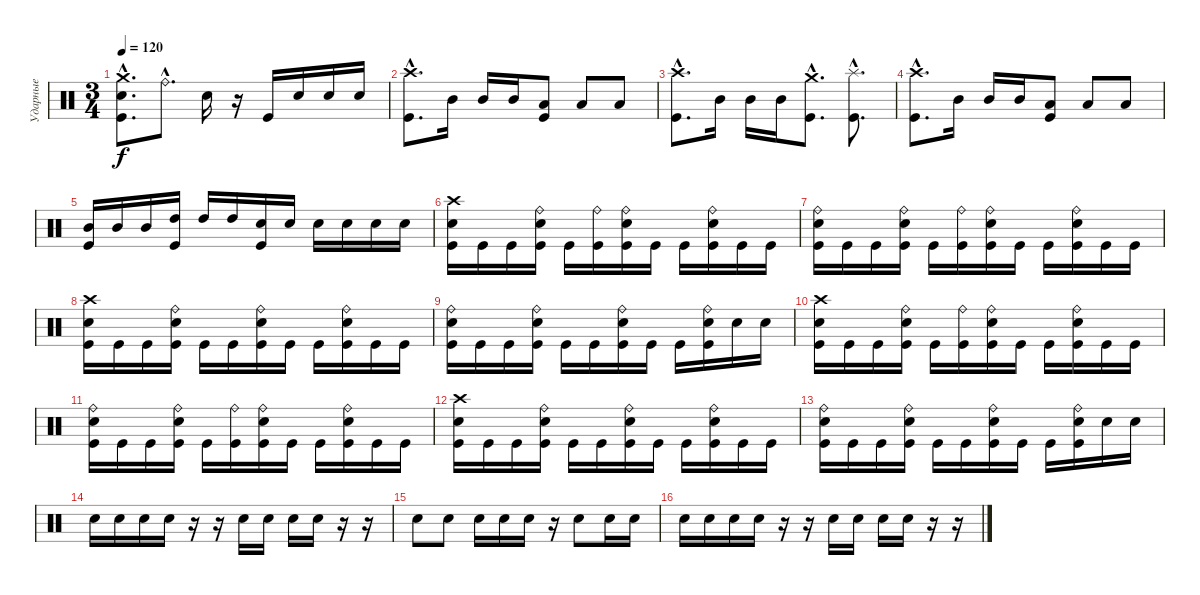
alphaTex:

\track ("Ударные" "Ударные") {instrument percussion}
\staff {score}
\articulation defaults
\ts (3 4)
\tempo 120
\clef neutral
\ks c
("Crash medium (hit)"{hac} "Electric Snare (hit)"{hac} "Kick (hit)"{hac}).8{d dy f} "Ride (bell)"{hac}.8{d} "Electric Snare (hit)".16 r.16 "Kick (hit)".16 "Electric Snare (hit)".16 "Electric Snare (hit)".16 "Electric Snare (hit)".16 |
("Crash high (hit)"{hac} "Kick (hit)"{hac}).8{d} "Mid Tom (hit)".16 "Mid Tom (hit)".16 "Mid Tom (hit)".16 ("Low Tom (hit)" "Kick (hit)").8 "Low Tom (hit)".8 "Low Tom (hit)".8 |
("Crash high (hit)"{hac} "Kick (hit)"{hac}).8{d} "Mid Tom (hit)".16 "Mid Tom (hit)".16 "Mid Tom (hit)".16 ("Crash medium (hit)"{hac} "Kick (hit)"{hac}).8{d} ("Splash (hit)"{hac} "Kick (hit)"{hac}).8{d} |
("Crash high (hit)"{hac} "Kick (hit)"{hac}).8{d} "Mid Tom (hit)".16 "Mid Tom (hit)".16 "Mid Tom (hit)".16 ("Low Tom (hit)" "Kick (hit)").8 "Low Tom (hit)".8 "Low Tom (hit)".8 |
("Mid Tom (hit)" "Kick (hit)").16 "Mid Tom (hit)".16 "Mid Tom (hit)".16 ("High Tom (hit)" "Kick (hit)").16 "High Tom (hit)".16 "High Tom (hit)".16 ("Electric Snare (hit)" "Kick (hit)").16 "Electric Snare (hit)".16 "Electric Snare (hit)".16 "Electric Snare (hit)".16 "Electric Snare (hit)".16 "Electric Snare (hit)".16 |
("Crash high (hit)" "Electric Snare (hit)" "Kick (hit)").16 "Kick (hit)".16 "Kick (hit)".16 ("Ride (bell)" "Electric Snare (hit)" "Kick (hit)").16 "Kick (hit)".16 ("Ride (bell)" "Kick (hit)").16 ("Ride (bell)" "Electric Snare (hit)" "Kick (hit)").16 "Kick (hit)".16 "Kick (hit)".16 ("Ride (bell)" "Electric Snare (hit)" "Kick (hit)").16 "Kick (hit)".16 "Kick (hit)".16 |
("Ride (bell)" "Electric Snare (hit)" "Kick (hit)").16 "Kick (hit)".16 "Kick (hit)".16 ("Ride (bell)" "Electric Snare (hit)" "Kick (hit)").16 "Kick (hit)".16 ("Ride (bell)" "Kick (hit)").16 ("Ride (bell)" "Electric Snare (hit)" "Kick (hit)").16 "Kick (hit)".16 "Kick (hit)".16 ("Ride (bell)" "Electric Snare (hit)" "Kick (hit)").16 "Kick (hit)".16 "Kick (hit)".16 |
("Crash high (hit)" "Electric Snare (hit)" "Kick (hit)").16 "Kick (hit)".16 "Kick (hit)".16 ("Ride (bell)" "Electric Snare (hit)" "Kick (hit)").16 "Kick (hit)".16 "Kick (hit)".16 ("Ride (bell)" "Electric Snare (hit)" "Kick (hit)").16 "Kick (hit)".16 "Kick (hit)".16 ("Ride (bell)" "Electric Snare (hit)" "Kick (hit)").16 "Kick (hit)".16 "Kick (hit)".16 |
("Ride (bell)" "Electric Snare (hit)" "Kick (hit)").16 "Kick (hit)".16 "Kick (hit)".16 ("Ride (bell)" "Electric Snare (hit)" "Kick (hit)").16 "Kick (hit)".16 "Kick (hit)".16 ("Ride (bell)" "Electric Snare (hit)" "Kick (hit)").16 "Kick (hit)".16 "Kick (hit)".16 ("Ride (bell)" "Electric Snare (hit)" "Kick (hit)").16 "Electric Snare (hit)".16 "Electric Snare (hit)".16 |
("Crash high (hit)" "Electric Snare (hit)" "Kick (hit)").16 "Kick (hit)".16 "Kick (hit)".16 ("Ride (bell)" "Electric Snare (hit)" "Kick (hit)").16 "Kick (hit)".16 ("Ride (bell)" "Kick (hit)").16 ("Ride (bell)" "Electric Snare (hit)" "Kick (hit)").16 "Kick (hit)".16 "Kick (hit)".16 ("Ride (bell)" "Electric Snare (hit)" "Kick (hit)").16 "Kick (hit)".16 "Kick (hit)".16 |
("Ride (bell)" "Electric Snare (hit)" "Kick (hit)").16 "Kick (hit)".16 "Kick (hit)".16 ("Ride (bell)" "Electric Snare (hit)" "Kick (hit)").16 "Kick (hit)".16 ("Ride (bell)" "Kick (hit)").16 ("Ride (bell)" "Electric Snare (hit)" "Kick (hit)").16 "Kick (hit)".16 "Kick (hit)".16 ("Ride (bell)" "Electric Snare (hit)" "Kick (hit)").16 "Kick (hit)".16 "Kick (hit)".16 |
("Crash high (hit)" "Electric Snare (hit)" "Kick (hit)").16 "Kick (hit)".16 "Kick (hit)".16 ("Ride (bell)" "Electric Snare (hit)" "Kick (hit)").16 "Kick (hit)".16 "Kick (hit)".16 ("Ride (bell)" "Electric Snare (hit)" "Kick (hit)").16 "Kick (hit)".16 "Kick (hit)".16 ("Ride (bell)" "Electric Snare (hit)" "Kick (hit)").16 "Kick (hit)".16 "Kick (hit)".16 |
("Ride (bell)" "Electric Snare (hit)" "Kick (hit)").16 "Kick (hit)".16 "Kick (hit)".16 ("Ride (bell)" "Electric Snare (hit)" "Kick (hit)").16 "Kick (hit)".16 "Kick (hit)".16 ("Ride (bell)" "Electric Snare (hit)" "Kick (hit)").16 "Kick (hit)".16 "Kick (hit)".16 ("Ride (bell)" "Electric Snare (hit)" "Kick (hit)").16 "Electric Snare (hit)".16 "Electric Snare (hit)".16 |
"Electric Snare (hit)".16 "Electric Snare (hit)".16 "Electric Snare (hit)".16 "Electric Snare (hit)".16 r.16 r.16 "Electric Snare (hit)".16 "Electric Snare (hit)".16 "Electric Snare (hit)".16 "Electric Snare (hit)".16 r.16 r.16 |
"Electric Snare (hit)".8 "Electric Snare (hit)".8 "Electric Snare (hit)".16 "Electric Snare (hit)".16 "Electric Snare (hit)".16 r.16 "Electric Snare (hit)".8 "Electric Snare (hit)".16 "Electric Snare (hit)".16 |
"Electric Snare (hit)".16 "Electric Snare (hit)".16 "Electric Snare (hit)".16 "Electric Snare (hit)".16 r.16 r.16 "Electric Snare (hit)".16 "Electric Snare (hit)".16 "Electric Snare (hit)".16 "Electric Snare (hit)".16 r.16 r.16
